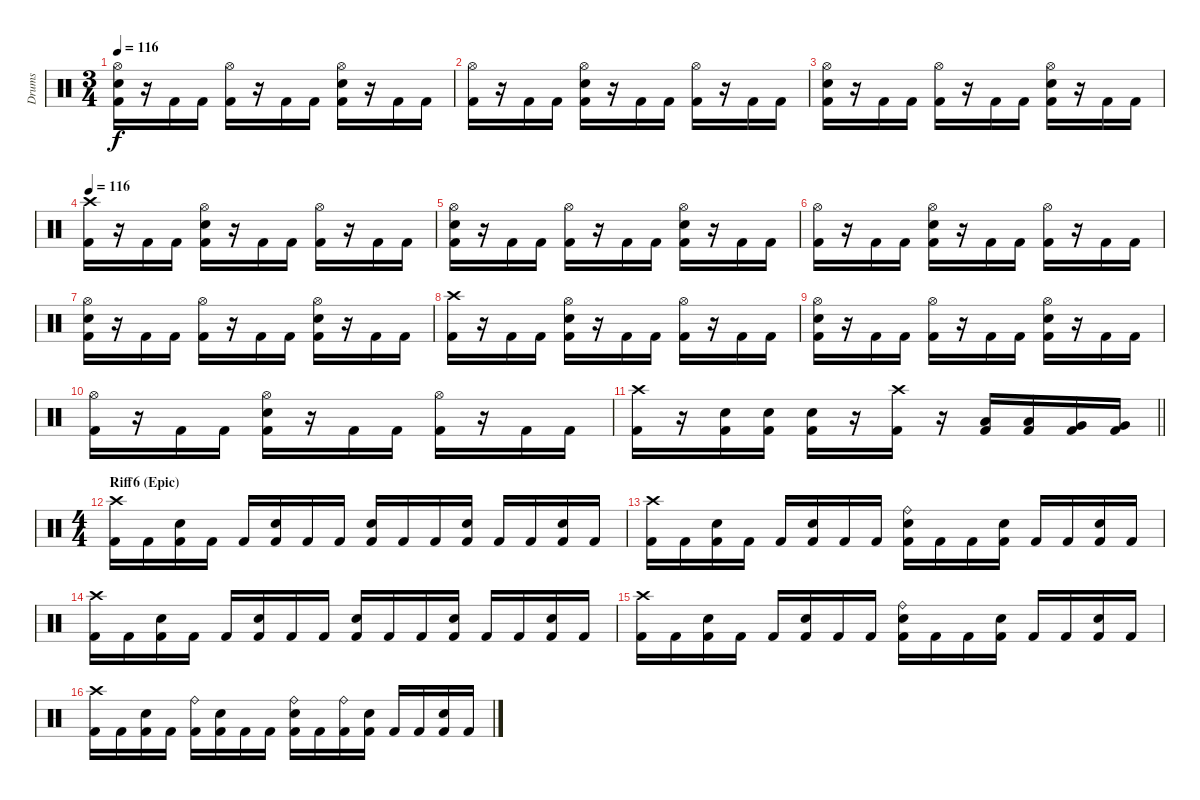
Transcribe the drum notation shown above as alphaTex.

\track ("Drums" "Drums") {instrument percussion}
\staff {score}
\articulation defaults
\ts (3 4)
\tempo 116
\clef neutral
\ks c
("Hi-Hat (open)" "Snare (hit) 2" "Kick (hit) 2").16{dy f} r.16 "Kick (hit) 2".16 "Kick (hit) 2".16 ("Hi-Hat (open)" "Kick (hit) 2").16 r.16 "Kick (hit) 2".16 "Kick (hit) 2".16 ("Hi-Hat (open)" "Snare (hit) 2" "Kick (hit) 2").16 r.16 "Kick (hit) 2".16 "Kick (hit) 2".16 |
("Hi-Hat (open)" "Kick (hit) 2").16 r.16 "Kick (hit) 2".16 "Kick (hit) 2".16 ("Hi-Hat (open)" "Snare (hit) 2" "Kick (hit) 2").16 r.16 "Kick (hit) 2".16 "Kick (hit) 2".16 ("Hi-Hat (open)" "Kick (hit) 2").16 r.16 "Kick (hit) 2".16 "Kick (hit) 2".16 |
("Hi-Hat (open)" "Snare (hit) 2" "Kick (hit) 2").16 r.16 "Kick (hit) 2".16 "Kick (hit) 2".16 ("Hi-Hat (open)" "Kick (hit) 2").16 r.16 "Kick (hit) 2".16 "Kick (hit) 2".16 ("Hi-Hat (open)" "Snare (hit) 2" "Kick (hit) 2").16 r.16 "Kick (hit) 2".16 "Kick (hit) 2".16 |
\tempo 116
("Crash high (hit)" "Kick (hit) 2").16 r.16 "Kick (hit) 2".16 "Kick (hit) 2".16 ("Hi-Hat (open)" "Snare (hit) 2" "Kick (hit) 2").16 r.16 "Kick (hit) 2".16 "Kick (hit) 2".16 ("Hi-Hat (open)" "Kick (hit) 2").16 r.16 "Kick (hit) 2".16 "Kick (hit) 2".16 |
("Hi-Hat (open)" "Snare (hit) 2" "Kick (hit) 2").16 r.16 "Kick (hit) 2".16 "Kick (hit) 2".16 ("Hi-Hat (open)" "Kick (hit) 2").16 r.16 "Kick (hit) 2".16 "Kick (hit) 2".16 ("Hi-Hat (open)" "Snare (hit) 2" "Kick (hit) 2").16 r.16 "Kick (hit) 2".16 "Kick (hit) 2".16 |
("Hi-Hat (open)" "Kick (hit) 2").16 r.16 "Kick (hit) 2".16 "Kick (hit) 2".16 ("Hi-Hat (open)" "Snare (hit) 2" "Kick (hit) 2").16 r.16 "Kick (hit) 2".16 "Kick (hit) 2".16 ("Hi-Hat (open)" "Kick (hit) 2").16 r.16 "Kick (hit) 2".16 "Kick (hit) 2".16 |
("Hi-Hat (open)" "Snare (hit) 2" "Kick (hit) 2").16 r.16 "Kick (hit) 2".16 "Kick (hit) 2".16 ("Hi-Hat (open)" "Kick (hit) 2").16 r.16 "Kick (hit) 2".16 "Kick (hit) 2".16 ("Hi-Hat (open)" "Snare (hit) 2" "Kick (hit) 2").16 r.16 "Kick (hit) 2".16 "Kick (hit) 2".16 |
("Crash high (hit)" "Kick (hit) 2").16 r.16 "Kick (hit) 2".16 "Kick (hit) 2".16 ("Hi-Hat (open)" "Snare (hit) 2" "Kick (hit) 2").16 r.16 "Kick (hit) 2".16 "Kick (hit) 2".16 ("Hi-Hat (open)" "Kick (hit) 2").16 r.16 "Kick (hit) 2".16 "Kick (hit) 2".16 |
("Hi-Hat (open)" "Snare (hit) 2" "Kick (hit) 2").16 r.16 "Kick (hit) 2".16 "Kick (hit) 2".16 ("Hi-Hat (open)" "Kick (hit) 2").16 r.16 "Kick (hit) 2".16 "Kick (hit) 2".16 ("Hi-Hat (open)" "Snare (hit) 2" "Kick (hit) 2").16 r.16 "Kick (hit) 2".16 "Kick (hit) 2".16 |
("Hi-Hat (open)" "Kick (hit) 2").16 r.16 "Kick (hit) 2".16 "Kick (hit) 2".16 ("Hi-Hat (open)" "Snare (hit) 2" "Kick (hit) 2").16 r.16 "Kick (hit) 2".16 "Kick (hit) 2".16 ("Hi-Hat (open)" "Kick (hit) 2").16 r.16 "Kick (hit) 2".16 "Kick (hit) 2".16 |
\barLineRight lightlight
("Crash high (hit)" "Kick (hit) 2").16 r.16 ("Snare (hit) 2" "Kick (hit) 2").16 ("Snare (hit) 2" "Kick (hit) 2").16 ("Snare (hit) 2" "Kick (hit) 2").16 r.16 ("Crash high (hit)" "Kick (hit) 2").16 r.16 ("Low Tom (hit)" "Kick (hit) 2").16 ("Low Tom (hit)" "Kick (hit) 2").16 ("Very Low Tom (hit)" "Kick (hit) 2").16 ("Very Low Tom (hit)" "Kick (hit) 2").16 |
\ts (4 4)
\section ("" "Riff6 (Epic)")
("Crash high (hit)" "Kick (hit) 2").16 "Kick (hit) 2".16 ("Snare (hit) 2" "Kick (hit) 2").16 "Kick (hit) 2".16 "Kick (hit) 2".16 ("Snare (hit) 2" "Kick (hit) 2").16 "Kick (hit) 2".16 "Kick (hit) 2".16 ("Snare (hit) 2" "Kick (hit) 2").16 "Kick (hit) 2".16 "Kick (hit) 2".16 ("Snare (hit) 2" "Kick (hit) 2").16 "Kick (hit) 2".16 "Kick (hit) 2".16 ("Snare (hit) 2" "Kick (hit) 2").16 "Kick (hit) 2".16 |
("Crash high (hit)" "Kick (hit) 2").16 "Kick (hit) 2".16 ("Snare (hit) 2" "Kick (hit) 2").16 "Kick (hit) 2".16 "Kick (hit) 2".16 ("Snare (hit) 2" "Kick (hit) 2").16 "Kick (hit) 2".16 "Kick (hit) 2".16 ("Ride (bell)" "Snare (hit) 2" "Kick (hit) 2").16 "Kick (hit) 2".16 "Kick (hit) 2".16 ("Snare (hit) 2" "Kick (hit) 2").16 "Kick (hit) 2".16 "Kick (hit) 2".16 ("Snare (hit) 2" "Kick (hit) 2").16 "Kick (hit) 2".16 |
("Crash high (hit)" "Kick (hit) 2").16 "Kick (hit) 2".16 ("Snare (hit) 2" "Kick (hit) 2").16 "Kick (hit) 2".16 "Kick (hit) 2".16 ("Snare (hit) 2" "Kick (hit) 2").16 "Kick (hit) 2".16 "Kick (hit) 2".16 ("Snare (hit) 2" "Kick (hit) 2").16 "Kick (hit) 2".16 "Kick (hit) 2".16 ("Snare (hit) 2" "Kick (hit) 2").16 "Kick (hit) 2".16 "Kick (hit) 2".16 ("Snare (hit) 2" "Kick (hit) 2").16 "Kick (hit) 2".16 |
("Crash high (hit)" "Kick (hit) 2").16 "Kick (hit) 2".16 ("Snare (hit) 2" "Kick (hit) 2").16 "Kick (hit) 2".16 "Kick (hit) 2".16 ("Snare (hit) 2" "Kick (hit) 2").16 "Kick (hit) 2".16 "Kick (hit) 2".16 ("Ride (bell)" "Snare (hit) 2" "Kick (hit) 2").16 "Kick (hit) 2".16 "Kick (hit) 2".16 ("Snare (hit) 2" "Kick (hit) 2").16 "Kick (hit) 2".16 "Kick (hit) 2".16 ("Snare (hit) 2" "Kick (hit) 2").16 "Kick (hit) 2".16 |
("Crash high (hit)" "Kick (hit) 2").16 "Kick (hit) 2".16 ("Snare (hit) 2" "Kick (hit) 2").16 "Kick (hit) 2".16 ("Ride (bell)" "Kick (hit) 2").16 ("Snare (hit) 2" "Kick (hit) 2").16 "Kick (hit) 2".16 "Kick (hit) 2".16 ("Ride (bell)" "Snare (hit) 2" "Kick (hit) 2").16 "Kick (hit) 2".16 ("Ride (bell)" "Kick (hit) 2").16 ("Snare (hit) 2" "Kick (hit) 2").16 "Kick (hit) 2".16 "Kick (hit) 2".16 ("Snare (hit) 2" "Kick (hit) 2").16 "Kick (hit) 2".16
